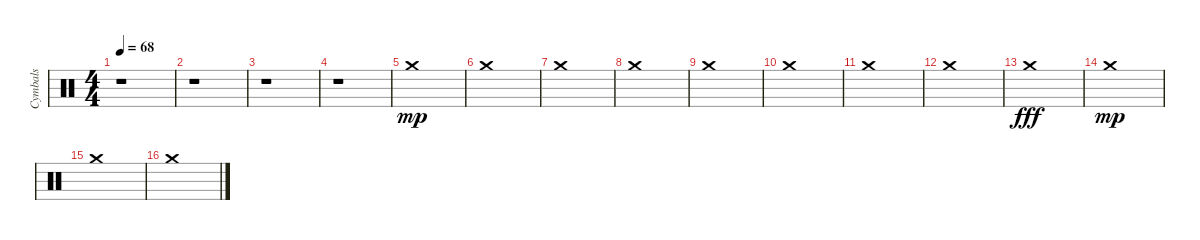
\track ("Cymbals" "Cymbals") {instrument percussion}
\staff {score}
\articulation defaults
\ts (4 4)
\tempo 68
\clef neutral
\ks c
r.1{dy mp} |
r.1 |
r.1 |
r.1 |
"Crash medium (hit)".1 |
"Crash medium (hit)".1 |
"Crash medium (hit)".1 |
"Crash medium (hit)".1 |
"Crash medium (hit)".1 |
"Crash medium (hit)".1 |
"Crash medium (hit)".1 |
"Crash medium (hit)".1 |
"Crash medium (hit)".1{dy fff} |
"Crash medium (hit)".1{dy mp} |
"Crash medium (hit)".1 |
"Crash medium (hit)".1
